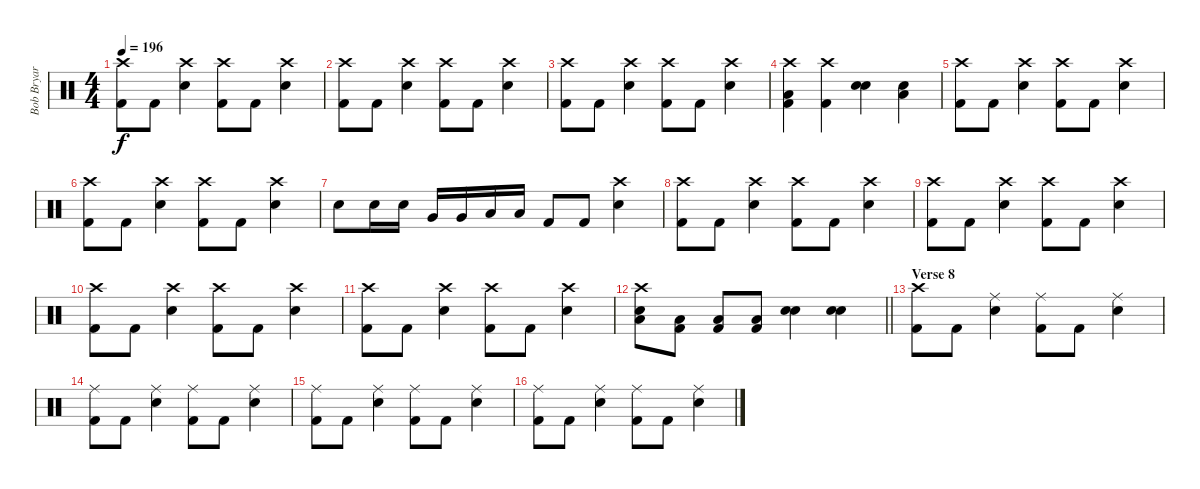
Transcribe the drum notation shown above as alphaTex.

\track ("Bob Bryar (percussion)" "Bob Bryar ") {instrument percussion}
\staff {score}
\articulation defaults
\ts (4 4)
\tempo 196
\clef neutral
\ks c
("Crash high (hit)" "Kick (hit) 2").8{dy f} "Kick (hit) 2".8 ("Crash high (hit)" "Electric Snare (hit)").4 ("Crash high (hit)" "Kick (hit) 2").8 "Kick (hit) 2".8 ("Crash high (hit)" "Electric Snare (hit)").4 |
("Crash high (hit)" "Kick (hit) 2").8 "Kick (hit) 2".8 ("Crash high (hit)" "Electric Snare (hit)").4 ("Crash high (hit)" "Kick (hit) 2").8 "Kick (hit) 2".8 ("Crash high (hit)" "Electric Snare (hit)").4 |
("Crash high (hit)" "Kick (hit) 2").8 "Kick (hit) 2".8 ("Crash high (hit)" "Electric Snare (hit)").4 ("Crash high (hit)" "Kick (hit) 2").8 "Kick (hit) 2".8 ("Crash high (hit)" "Electric Snare (hit)").4 |
("Crash high (hit)" "Low Floor Tom (hit)" "Kick (hit) 2").4 ("Crash high (hit)" "Kick (hit) 2").4 ("Electric Snare (hit)" "Electric Snare (hit)").4 ("Electric Snare (hit)" "Low Floor Tom (hit)").4 |
("Crash high (hit)" "Kick (hit) 2").8 "Kick (hit) 2".8 ("Crash high (hit)" "Electric Snare (hit)").4 ("Crash high (hit)" "Kick (hit) 2").8 "Kick (hit) 2".8 ("Crash high (hit)" "Electric Snare (hit)").4 |
("Crash high (hit)" "Kick (hit) 2").8 "Kick (hit) 2".8 ("Crash high (hit)" "Electric Snare (hit)").4 ("Crash high (hit)" "Kick (hit) 2").8 "Kick (hit) 2".8 ("Crash high (hit)" "Electric Snare (hit)").4 |
"Electric Snare (hit)".8 "Electric Snare (hit)".16 "Electric Snare (hit)".16 "Very Low Tom (hit)".16 "Very Low Tom (hit)".16 "Low Floor Tom (hit)".16 "Low Floor Tom (hit)".16 "Kick (hit) 2".8 "Kick (hit) 2".8 ("Crash high (hit)" "Electric Snare (hit)").4 |
("Crash high (hit)" "Kick (hit) 2").8 "Kick (hit) 2".8 ("Crash high (hit)" "Electric Snare (hit)").4 ("Crash high (hit)" "Kick (hit) 2").8 "Kick (hit) 2".8 ("Crash high (hit)" "Electric Snare (hit)").4 |
("Crash high (hit)" "Kick (hit) 2").8 "Kick (hit) 2".8 ("Crash high (hit)" "Electric Snare (hit)").4 ("Crash high (hit)" "Kick (hit) 2").8 "Kick (hit) 2".8 ("Crash high (hit)" "Electric Snare (hit)").4 |
("Crash high (hit)" "Kick (hit) 2").8 "Kick (hit) 2".8 ("Crash high (hit)" "Electric Snare (hit)").4 ("Crash high (hit)" "Kick (hit) 2").8 "Kick (hit) 2".8 ("Crash high (hit)" "Electric Snare (hit)").4 |
("Crash high (hit)" "Kick (hit) 2").8 "Kick (hit) 2".8 ("Crash high (hit)" "Electric Snare (hit)").4 ("Crash high (hit)" "Kick (hit) 2").8 "Kick (hit) 2".8 ("Crash high (hit)" "Electric Snare (hit)").4 |
\barLineRight lightlight
("Crash high (hit)" "Electric Snare (hit)" "Low Floor Tom (hit)").8 ("Low Floor Tom (hit)" "Kick (hit) 2").8 ("Low Floor Tom (hit)" "Kick (hit) 2").8 ("Low Floor Tom (hit)" "Kick (hit) 2").8 ("Electric Snare (hit)" "Electric Snare (hit)").4 ("Electric Snare (hit)" "Electric Snare (hit)").4 |
\section ("" "Verse 8")
("Crash high (hit)" "Kick (hit) 2").8 "Kick (hit) 2".8 ("Ride (middle)" "Electric Snare (hit)").4 ("Ride (middle)" "Kick (hit) 2").8 "Kick (hit) 2".8 ("Ride (middle)" "Electric Snare (hit)").4 |
("Ride (middle)" "Kick (hit) 2").8 "Kick (hit) 2".8 ("Ride (middle)" "Electric Snare (hit)").4 ("Ride (middle)" "Kick (hit) 2").8 "Kick (hit) 2".8 ("Ride (middle)" "Electric Snare (hit)").4 |
("Ride (middle)" "Kick (hit) 2").8 "Kick (hit) 2".8 ("Ride (middle)" "Electric Snare (hit)").4 ("Ride (middle)" "Kick (hit) 2").8 "Kick (hit) 2".8 ("Ride (middle)" "Electric Snare (hit)").4 |
("Ride (middle)" "Kick (hit) 2").8 "Kick (hit) 2".8 ("Ride (middle)" "Electric Snare (hit)").4 ("Ride (middle)" "Kick (hit) 2").8 "Kick (hit) 2".8 ("Ride (middle)" "Electric Snare (hit)").4
